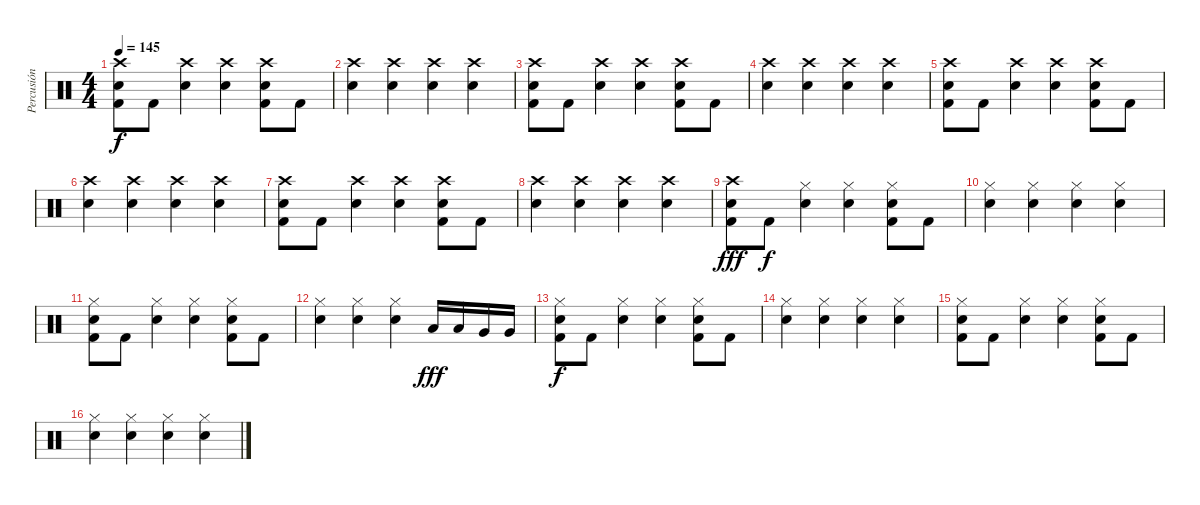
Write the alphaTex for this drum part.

\track ("Percusión" "Percusión") {instrument percussion}
\staff {score}
\articulation defaults
\ts (4 4)
\tempo 145
\clef neutral
\ks c
("Crash high (hit)" "Snare (hit) 2" "Kick (hit) 2").8{dy f} "Kick (hit) 2".8 ("Crash high (hit)" "Snare (hit) 2").4 ("Crash high (hit)" "Snare (hit) 2").4 ("Crash high (hit)" "Snare (hit) 2" "Kick (hit) 2").8 "Kick (hit) 2".8 |
("Crash high (hit)" "Snare (hit) 2").4 ("Crash high (hit)" "Snare (hit) 2").4 ("Crash high (hit)" "Snare (hit) 2").4 ("Crash high (hit)" "Snare (hit) 2").4 |
("Crash high (hit)" "Snare (hit) 2" "Kick (hit) 2").8 "Kick (hit) 2".8 ("Crash high (hit)" "Snare (hit) 2").4 ("Crash high (hit)" "Snare (hit) 2").4 ("Crash high (hit)" "Snare (hit) 2" "Kick (hit) 2").8 "Kick (hit) 2".8 |
("Crash high (hit)" "Snare (hit) 2").4 ("Crash high (hit)" "Snare (hit) 2").4 ("Crash high (hit)" "Snare (hit) 2").4 ("Crash high (hit)" "Snare (hit) 2").4 |
("Crash high (hit)" "Snare (hit) 2" "Kick (hit) 2").8 "Kick (hit) 2".8 ("Crash high (hit)" "Snare (hit) 2").4 ("Crash high (hit)" "Snare (hit) 2").4 ("Crash high (hit)" "Snare (hit) 2" "Kick (hit) 2").8 "Kick (hit) 2".8 |
("Crash high (hit)" "Snare (hit) 2").4 ("Crash high (hit)" "Snare (hit) 2").4 ("Crash high (hit)" "Snare (hit) 2").4 ("Crash high (hit)" "Snare (hit) 2").4 |
("Crash high (hit)" "Snare (hit) 2" "Kick (hit) 2").8 "Kick (hit) 2".8 ("Crash high (hit)" "Snare (hit) 2").4 ("Crash high (hit)" "Snare (hit) 2").4 ("Crash high (hit)" "Snare (hit) 2" "Kick (hit) 2").8 "Kick (hit) 2".8 |
("Crash high (hit)" "Snare (hit) 2").4 ("Crash high (hit)" "Snare (hit) 2").4 ("Crash high (hit)" "Snare (hit) 2").4 ("Crash high (hit)" "Snare (hit) 2").4 |
("Crash high (hit)" "Snare (hit) 2" "Kick (hit) 2").8{dy fff} "Kick (hit) 2".8{dy f} ("Hi-Hat (closed)" "Snare (hit) 2").4 ("Hi-Hat (closed)" "Snare (hit) 2").4 ("Hi-Hat (closed)" "Snare (hit) 2" "Kick (hit) 2").8 "Kick (hit) 2".8 |
("Hi-Hat (closed)" "Snare (hit) 2").4 ("Hi-Hat (closed)" "Snare (hit) 2").4 ("Hi-Hat (closed)" "Snare (hit) 2").4 ("Hi-Hat (closed)" "Snare (hit) 2").4 |
("Hi-Hat (closed)" "Snare (hit) 2" "Kick (hit) 2").8 "Kick (hit) 2".8 ("Hi-Hat (closed)" "Snare (hit) 2").4 ("Hi-Hat (closed)" "Snare (hit) 2").4 ("Hi-Hat (closed)" "Snare (hit) 2" "Kick (hit) 2").8 "Kick (hit) 2".8 |
("Hi-Hat (closed)" "Snare (hit) 2").4 ("Hi-Hat (closed)" "Snare (hit) 2").4 ("Hi-Hat (closed)" "Snare (hit) 2").4 "Low Tom (hit)".16{dy fff} "Low Tom (hit)".16 "Very Low Tom (hit)".16 "Very Low Tom (hit)".16 |
("Hi-Hat (closed)" "Snare (hit) 2" "Kick (hit) 2").8{dy f} "Kick (hit) 2".8 ("Hi-Hat (closed)" "Snare (hit) 2").4 ("Hi-Hat (closed)" "Snare (hit) 2").4 ("Hi-Hat (closed)" "Snare (hit) 2" "Kick (hit) 2").8 "Kick (hit) 2".8 |
("Hi-Hat (closed)" "Snare (hit) 2").4 ("Hi-Hat (closed)" "Snare (hit) 2").4 ("Hi-Hat (closed)" "Snare (hit) 2").4 ("Hi-Hat (closed)" "Snare (hit) 2").4 |
("Hi-Hat (closed)" "Snare (hit) 2" "Kick (hit) 2").8 "Kick (hit) 2".8 ("Hi-Hat (closed)" "Snare (hit) 2").4 ("Hi-Hat (closed)" "Snare (hit) 2").4 ("Hi-Hat (closed)" "Snare (hit) 2" "Kick (hit) 2").8 "Kick (hit) 2".8 |
("Hi-Hat (closed)" "Snare (hit) 2").4 ("Hi-Hat (closed)" "Snare (hit) 2").4 ("Hi-Hat (closed)" "Snare (hit) 2").4 ("Hi-Hat (closed)" "Snare (hit) 2").4
